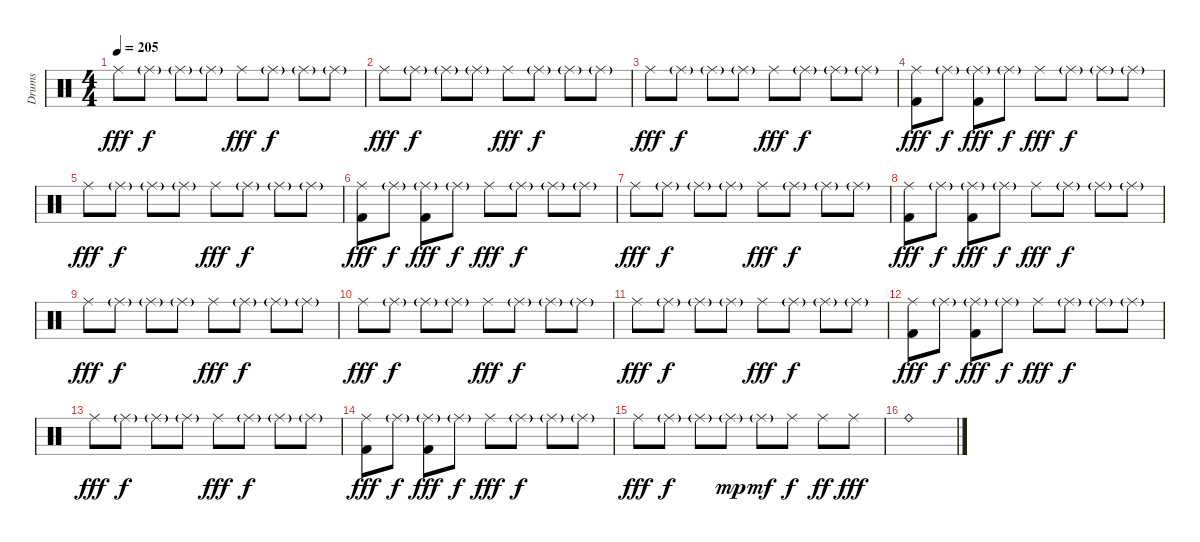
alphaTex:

\track ("Drums" "Drums") {instrument percussion}
\staff {score}
\articulation defaults
\ts (4 4)
\tempo 205
\clef neutral
\ks c "Ride (middle)".8{dy fff} "Ride (middle)"{g}.8{dy f} "Ride (middle)"{g}.8 "Ride (middle)"{g}.8 "Ride (middle)".8{dy fff} "Ride (middle)"{g}.8{dy f} "Ride (middle)"{g}.8 "Ride (middle)"{g}.8
|
"Ride (middle)".8{dy fff} "Ride (middle)"{g}.8{dy f} "Ride (middle)"{g}.8 "Ride (middle)"{g}.8 "Ride (middle)".8{dy fff} "Ride (middle)"{g}.8{dy f} "Ride (middle)"{g}.8 "Ride (middle)"{g}.8 |
"Ride (middle)".8{dy fff} "Ride (middle)"{g}.8{dy f} "Ride (middle)"{g}.8 "Ride (middle)"{g}.8 "Ride (middle)".8{dy fff} "Ride (middle)"{g}.8{dy f} "Ride (middle)"{g}.8 "Ride (middle)"{g}.8 |
("Ride (middle)" "Kick (hit) 2").8{dy fff} "Ride (middle)"{g}.8{dy f} ("Ride (middle)"{g} "Kick (hit) 2").8{dy fff} "Ride (middle)"{g}.8{dy f} "Ride (middle)".8{dy fff} "Ride (middle)"{g}.8{dy f} "Ride (middle)"{g}.8 "Ride (middle)"{g}.8 |
"Ride (middle)".8{dy fff} "Ride (middle)"{g}.8{dy f} "Ride (middle)"{g}.8 "Ride (middle)"{g}.8 "Ride (middle)".8{dy fff} "Ride (middle)"{g}.8{dy f} "Ride (middle)"{g}.8 "Ride (middle)"{g}.8 |
("Ride (middle)" "Kick (hit) 2").8{dy fff} "Ride (middle)"{g}.8{dy f} ("Ride (middle)"{g} "Kick (hit) 2").8{dy fff} "Ride (middle)"{g}.8{dy f} "Ride (middle)".8{dy fff} "Ride (middle)"{g}.8{dy f} "Ride (middle)"{g}.8 "Ride (middle)"{g}.8 |
"Ride (middle)".8{dy fff} "Ride (middle)"{g}.8{dy f} "Ride (middle)"{g}.8 "Ride (middle)"{g}.8 "Ride (middle)".8{dy fff} "Ride (middle)"{g}.8{dy f} "Ride (middle)"{g}.8 "Ride (middle)"{g}.8 |
("Ride (middle)" "Kick (hit) 2").8{dy fff} "Ride (middle)"{g}.8{dy f} ("Ride (middle)"{g} "Kick (hit) 2").8{dy fff} "Ride (middle)"{g}.8{dy f} "Ride (middle)".8{dy fff} "Ride (middle)"{g}.8{dy f} "Ride (middle)"{g}.8 "Ride (middle)"{g}.8 |
"Ride (middle)".8{dy fff} "Ride (middle)"{g}.8{dy f} "Ride (middle)"{g}.8 "Ride (middle)"{g}.8 "Ride (middle)".8{dy fff} "Ride (middle)"{g}.8{dy f} "Ride (middle)"{g}.8 "Ride (middle)"{g}.8 |
"Ride (middle)".8{dy fff} "Ride (middle)"{g}.8{dy f} "Ride (middle)"{g}.8 "Ride (middle)"{g}.8 "Ride (middle)".8{dy fff} "Ride (middle)"{g}.8{dy f} "Ride (middle)"{g}.8 "Ride (middle)"{g}.8 |
"Ride (middle)".8{dy fff} "Ride (middle)"{g}.8{dy f} "Ride (middle)"{g}.8 "Ride (middle)"{g}.8 "Ride (middle)".8{dy fff} "Ride (middle)"{g}.8{dy f} "Ride (middle)"{g}.8 "Ride (middle)"{g}.8 |
("Ride (middle)" "Kick (hit) 2").8{dy fff} "Ride (middle)"{g}.8{dy f} ("Ride (middle)"{g} "Kick (hit) 2").8{dy fff} "Ride (middle)"{g}.8{dy f} "Ride (middle)".8{dy fff} "Ride (middle)"{g}.8{dy f} "Ride (middle)"{g}.8 "Ride (middle)"{g}.8 |
"Ride (middle)".8{dy fff} "Ride (middle)"{g}.8{dy f} "Ride (middle)"{g}.8 "Ride (middle)"{g}.8 "Ride (middle)".8{dy fff} "Ride (middle)"{g}.8{dy f} "Ride (middle)"{g}.8 "Ride (middle)"{g}.8 |
("Ride (middle)" "Kick (hit) 2").8{dy fff} "Ride (middle)"{g}.8{dy f} ("Ride (middle)"{g} "Kick (hit) 2").8{dy fff} "Ride (middle)"{g}.8{dy f} "Ride (middle)".8{dy fff} "Ride (middle)"{g}.8{dy f} "Ride (middle)"{g}.8 "Ride (middle)"{g}.8 |
"Ride (middle)".8{dy fff} "Ride (middle)"{g}.8{dy f} "Ride (middle)"{g}.8 "Ride (middle)"{g}.8{dy mp} "Ride (middle)"{g}.8{dy mf} "Ride (middle)".8{dy f} "Ride (middle)".8{dy ff} "Ride (middle)".8{dy fff} |
"Ride (bell)".1
